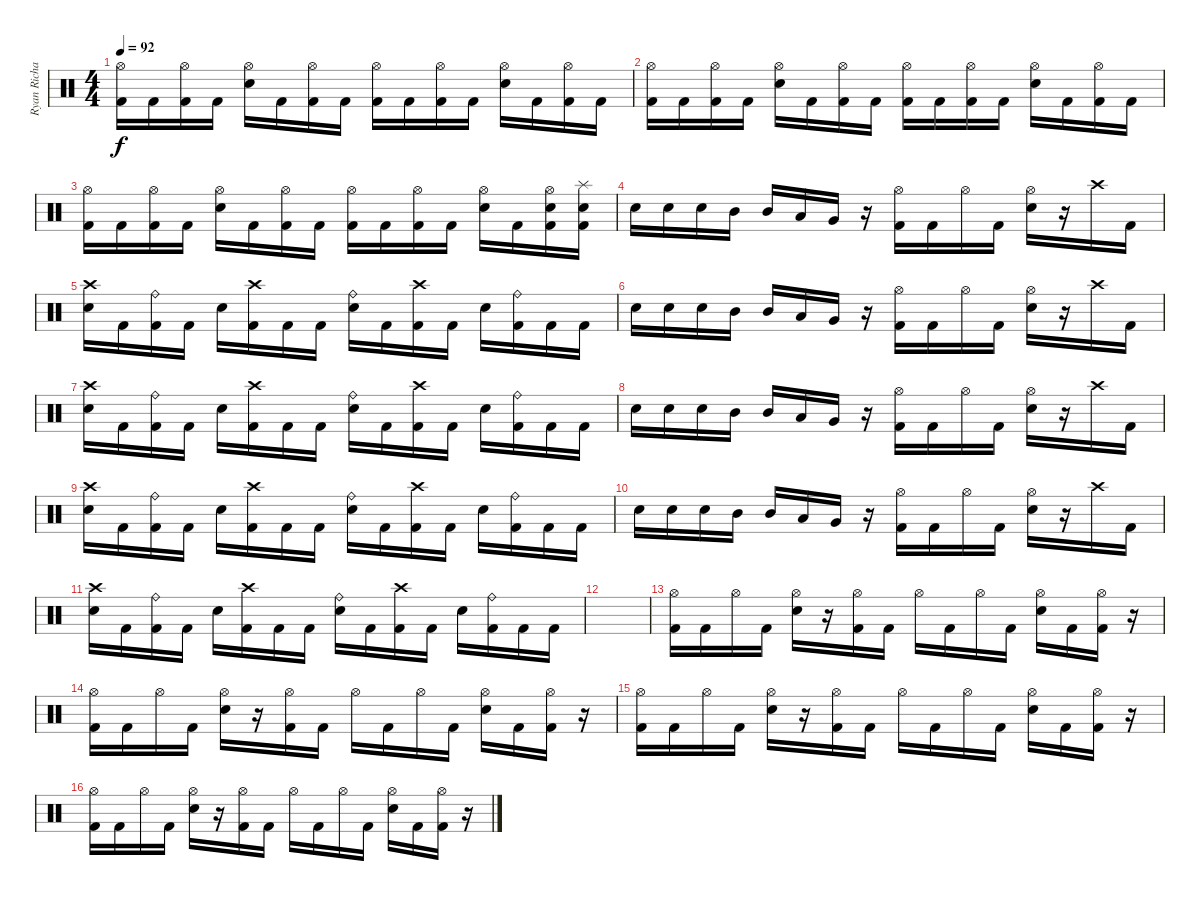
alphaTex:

\track ("Ryan Richards" "Ryan Richa") {instrument percussion}
\staff {score}
\articulation defaults
\ts (4 4)
\tempo 92
\clef neutral
\ks c
("Hi-Hat (open)" "Kick (hit) 2").16{dy f} "Kick (hit) 2".16 ("Hi-Hat (open)" "Kick (hit) 2").16 "Kick (hit) 2".16 ("Hi-Hat (open)" "Snare (hit) 2").16 "Kick (hit) 2".16 ("Hi-Hat (open)" "Kick (hit) 2").16 "Kick (hit) 2".16 ("Hi-Hat (open)" "Kick (hit) 2").16 "Kick (hit) 2".16 ("Hi-Hat (open)" "Kick (hit) 2").16 "Kick (hit) 2".16 ("Hi-Hat (open)" "Snare (hit) 2").16 "Kick (hit) 2".16 ("Hi-Hat (open)" "Kick (hit) 2").16 "Kick (hit) 2".16 |
("Hi-Hat (open)" "Kick (hit) 2").16 "Kick (hit) 2".16 ("Hi-Hat (open)" "Kick (hit) 2").16 "Kick (hit) 2".16 ("Hi-Hat (open)" "Snare (hit) 2").16 "Kick (hit) 2".16 ("Hi-Hat (open)" "Kick (hit) 2").16 "Kick (hit) 2".16 ("Hi-Hat (open)" "Kick (hit) 2").16 "Kick (hit) 2".16 ("Hi-Hat (open)" "Kick (hit) 2").16 "Kick (hit) 2".16 ("Hi-Hat (open)" "Snare (hit) 2").16 "Kick (hit) 2".16 ("Hi-Hat (open)" "Kick (hit) 2").16 "Kick (hit) 2".16 |
("Hi-Hat (open)" "Kick (hit) 2").16 "Kick (hit) 2".16 ("Hi-Hat (open)" "Kick (hit) 2").16 "Kick (hit) 2".16 ("Hi-Hat (open)" "Snare (hit) 2").16 "Kick (hit) 2".16 ("Hi-Hat (open)" "Kick (hit) 2").16 "Kick (hit) 2".16 ("Hi-Hat (open)" "Kick (hit) 2").16 "Kick (hit) 2".16 ("Hi-Hat (open)" "Kick (hit) 2").16 "Kick (hit) 2".16 ("Hi-Hat (open)" "Snare (hit) 2").16 "Kick (hit) 2".16 ("Hi-Hat (open)" "Snare (hit) 2" "Kick (hit) 2").16 ("Splash (hit)" "Snare (hit) 2" "Kick (hit) 2").16 |
"Snare (hit) 2".16 "Snare (hit) 2".16 "Snare (hit) 2".16 "Mid Tom (hit)".16 "Mid Tom (hit)".16 "Low Tom (hit)".16 "Very Low Tom (hit)".16 r.16 ("Hi-Hat (open)" "Kick (hit) 2").16 "Kick (hit) 2".16 "Hi-Hat (open)".16 "Kick (hit) 2".16 ("Hi-Hat (open)" "Snare (hit) 2").16 r.16 "Crash high (hit)".16 "Kick (hit) 2".16 |
("Crash high (hit)" "Snare (hit) 2").16 "Kick (hit) 2".16 ("Ride (bell)" "Kick (hit) 2").16 "Kick (hit) 2".16 "Snare (hit) 2".16 ("Crash high (hit)" "Kick (hit) 2").16 "Kick (hit) 2".16 "Kick (hit) 2".16 ("Ride (bell)" "Snare (hit) 2").16 "Kick (hit) 2".16 ("Crash high (hit)" "Kick (hit) 2").16 "Kick (hit) 2".16 "Snare (hit) 2".16 ("Ride (bell)" "Kick (hit) 2").16 "Kick (hit) 2".16 "Kick (hit) 2".16 |
"Snare (hit) 2".16 "Snare (hit) 2".16 "Snare (hit) 2".16 "Mid Tom (hit)".16 "Mid Tom (hit)".16 "Low Tom (hit)".16 "Very Low Tom (hit)".16 r.16 ("Hi-Hat (open)" "Kick (hit) 2").16 "Kick (hit) 2".16 "Hi-Hat (open)".16 "Kick (hit) 2".16 ("Hi-Hat (open)" "Snare (hit) 2").16 r.16 "Crash high (hit)".16 "Kick (hit) 2".16 |
("Crash high (hit)" "Snare (hit) 2").16 "Kick (hit) 2".16 ("Ride (bell)" "Kick (hit) 2").16 "Kick (hit) 2".16 "Snare (hit) 2".16 ("Crash high (hit)" "Kick (hit) 2").16 "Kick (hit) 2".16 "Kick (hit) 2".16 ("Ride (bell)" "Snare (hit) 2").16 "Kick (hit) 2".16 ("Crash high (hit)" "Kick (hit) 2").16 "Kick (hit) 2".16 "Snare (hit) 2".16 ("Ride (bell)" "Kick (hit) 2").16 "Kick (hit) 2".16 "Kick (hit) 2".16 |
"Snare (hit) 2".16 "Snare (hit) 2".16 "Snare (hit) 2".16 "Mid Tom (hit)".16 "Mid Tom (hit)".16 "Low Tom (hit)".16 "Very Low Tom (hit)".16 r.16 ("Hi-Hat (open)" "Kick (hit) 2").16 "Kick (hit) 2".16 "Hi-Hat (open)".16 "Kick (hit) 2".16 ("Hi-Hat (open)" "Snare (hit) 2").16 r.16 "Crash high (hit)".16 "Kick (hit) 2".16 |
("Crash high (hit)" "Snare (hit) 2").16 "Kick (hit) 2".16 ("Ride (bell)" "Kick (hit) 2").16 "Kick (hit) 2".16 "Snare (hit) 2".16 ("Crash high (hit)" "Kick (hit) 2").16 "Kick (hit) 2".16 "Kick (hit) 2".16 ("Ride (bell)" "Snare (hit) 2").16 "Kick (hit) 2".16 ("Crash high (hit)" "Kick (hit) 2").16 "Kick (hit) 2".16 "Snare (hit) 2".16 ("Ride (bell)" "Kick (hit) 2").16 "Kick (hit) 2".16 "Kick (hit) 2".16 |
"Snare (hit) 2".16 "Snare (hit) 2".16 "Snare (hit) 2".16 "Mid Tom (hit)".16 "Mid Tom (hit)".16 "Low Tom (hit)".16 "Very Low Tom (hit)".16 r.16 ("Hi-Hat (open)" "Kick (hit) 2").16 "Kick (hit) 2".16 "Hi-Hat (open)".16 "Kick (hit) 2".16 ("Hi-Hat (open)" "Snare (hit) 2").16 r.16 "Crash high (hit)".16 "Kick (hit) 2".16 |
("Crash high (hit)" "Snare (hit) 2").16 "Kick (hit) 2".16 ("Ride (bell)" "Kick (hit) 2").16 "Kick (hit) 2".16 "Snare (hit) 2".16 ("Crash high (hit)" "Kick (hit) 2").16 "Kick (hit) 2".16 "Kick (hit) 2".16 ("Ride (bell)" "Snare (hit) 2").16 "Kick (hit) 2".16 ("Crash high (hit)" "Kick (hit) 2").16 "Kick (hit) 2".16 "Snare (hit) 2".16 ("Ride (bell)" "Kick (hit) 2").16 "Kick (hit) 2".16 "Kick (hit) 2".16 |
|
("Hi-Hat (open)" "Kick (hit) 2").16 "Kick (hit) 2".16 "Hi-Hat (open)".16 "Kick (hit) 2".16 ("Hi-Hat (open)" "Snare (hit) 2").16 r.16 ("Hi-Hat (open)" "Kick (hit) 2").16 "Kick (hit) 2".16 "Hi-Hat (open)".16 "Kick (hit) 2".16 "Hi-Hat (open)".16 "Kick (hit) 2".16 ("Hi-Hat (open)" "Snare (hit) 2").16 "Kick (hit) 2".16 ("Hi-Hat (open)" "Kick (hit) 2").16 r.16 |
("Hi-Hat (open)" "Kick (hit) 2").16 "Kick (hit) 2".16 "Hi-Hat (open)".16 "Kick (hit) 2".16 ("Hi-Hat (open)" "Snare (hit) 2").16 r.16 ("Hi-Hat (open)" "Kick (hit) 2").16 "Kick (hit) 2".16 "Hi-Hat (open)".16 "Kick (hit) 2".16 "Hi-Hat (open)".16 "Kick (hit) 2".16 ("Hi-Hat (open)" "Snare (hit) 2").16 "Kick (hit) 2".16 ("Hi-Hat (open)" "Kick (hit) 2").16 r.16 |
("Hi-Hat (open)" "Kick (hit) 2").16 "Kick (hit) 2".16 "Hi-Hat (open)".16 "Kick (hit) 2".16 ("Hi-Hat (open)" "Snare (hit) 2").16 r.16 ("Hi-Hat (open)" "Kick (hit) 2").16 "Kick (hit) 2".16 "Hi-Hat (open)".16 "Kick (hit) 2".16 "Hi-Hat (open)".16 "Kick (hit) 2".16 ("Hi-Hat (open)" "Snare (hit) 2").16 "Kick (hit) 2".16 ("Hi-Hat (open)" "Kick (hit) 2").16 r.16 |
("Hi-Hat (open)" "Kick (hit) 2").16 "Kick (hit) 2".16 "Hi-Hat (open)".16 "Kick (hit) 2".16 ("Hi-Hat (open)" "Snare (hit) 2").16 r.16 ("Hi-Hat (open)" "Kick (hit) 2").16 "Kick (hit) 2".16 "Hi-Hat (open)".16 "Kick (hit) 2".16 "Hi-Hat (open)".16 "Kick (hit) 2".16 ("Hi-Hat (open)" "Snare (hit) 2").16 "Kick (hit) 2".16 ("Hi-Hat (open)" "Kick (hit) 2").16 r.16
